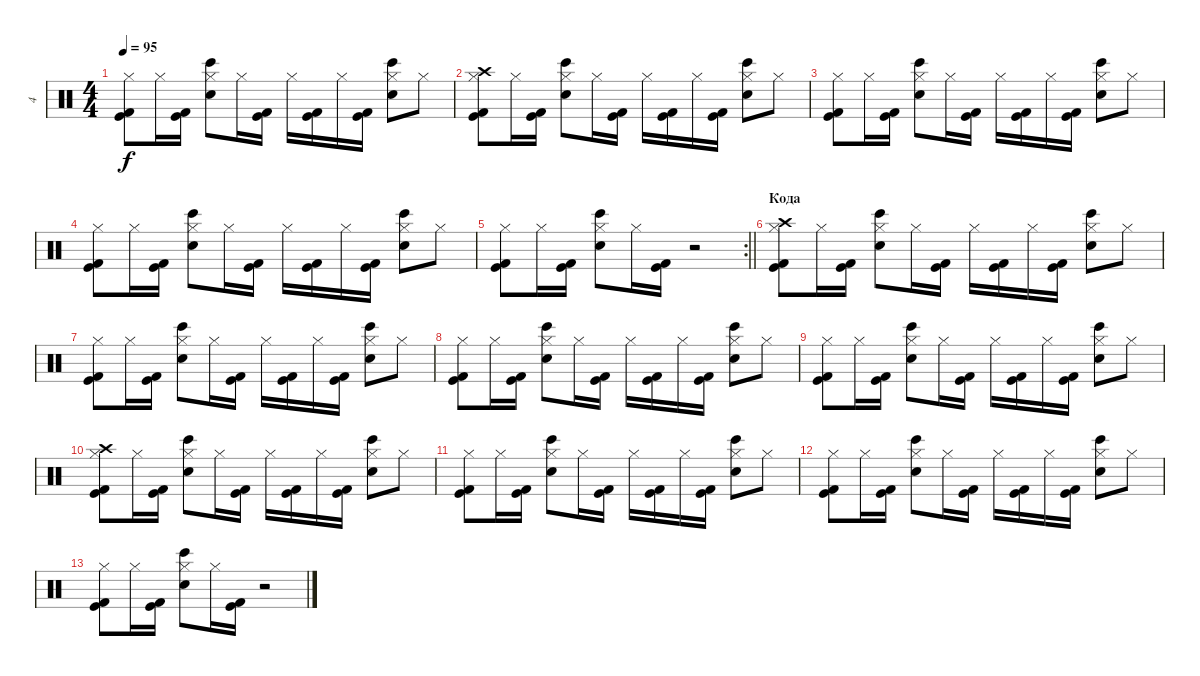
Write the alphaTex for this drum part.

\track ("4" "4") {instrument percussion}
\staff {score}
\articulation defaults
\ts (4 4)
\tempo 95
\clef neutral
\ks c
("Kick (hit) 2" "Kick (hit)" "Hi-Hat (closed)").8{dy f} "Hi-Hat (closed)".16 ("Kick (hit) 2" "Kick (hit)").16 ("Snare (hit) 2" "Hi-Hat (closed)" "Bongo High (hit)").8 "Hi-Hat (closed)".16 ("Kick (hit) 2" "Kick (hit)").16 "Hi-Hat (closed)".16 ("Kick (hit) 2" "Kick (hit)").16 "Hi-Hat (closed)".16 ("Kick (hit) 2" "Kick (hit)").16 ("Snare (hit) 2" "Hi-Hat (closed)" "Bongo High (hit)").8 "Hi-Hat (closed)".8 |
("Kick (hit) 2" "Kick (hit)" "Hi-Hat (closed)" "Crash high (hit)").8 "Hi-Hat (closed)".16 ("Kick (hit) 2" "Kick (hit)").16 ("Snare (hit) 2" "Hi-Hat (closed)" "Bongo High (hit)").8 "Hi-Hat (closed)".16 ("Kick (hit) 2" "Kick (hit)").16 "Hi-Hat (closed)".16 ("Kick (hit) 2" "Kick (hit)").16 "Hi-Hat (closed)".16 ("Kick (hit) 2" "Kick (hit)").16 ("Snare (hit) 2" "Hi-Hat (closed)" "Bongo High (hit)").8 "Hi-Hat (closed)".8 |
("Kick (hit) 2" "Kick (hit)" "Hi-Hat (closed)").8 "Hi-Hat (closed)".16 ("Kick (hit) 2" "Kick (hit)").16 ("Snare (hit) 2" "Hi-Hat (closed)" "Bongo High (hit)").8 "Hi-Hat (closed)".16 ("Kick (hit) 2" "Kick (hit)").16 "Hi-Hat (closed)".16 ("Kick (hit) 2" "Kick (hit)").16 "Hi-Hat (closed)".16 ("Kick (hit) 2" "Kick (hit)").16 ("Snare (hit) 2" "Hi-Hat (closed)" "Bongo High (hit)").8 "Hi-Hat (closed)".8 |
("Kick (hit) 2" "Kick (hit)" "Hi-Hat (closed)").8 "Hi-Hat (closed)".16 ("Kick (hit) 2" "Kick (hit)").16 ("Snare (hit) 2" "Hi-Hat (closed)" "Bongo High (hit)").8 "Hi-Hat (closed)".16 ("Kick (hit) 2" "Kick (hit)").16 "Hi-Hat (closed)".16 ("Kick (hit) 2" "Kick (hit)").16 "Hi-Hat (closed)".16 ("Kick (hit) 2" "Kick (hit)").16 ("Snare (hit) 2" "Hi-Hat (closed)" "Bongo High (hit)").8 "Hi-Hat (closed)".8 |
\rc 2
\barLineRight lightlight
("Kick (hit) 2" "Kick (hit)" "Hi-Hat (closed)").8 "Hi-Hat (closed)".16 ("Kick (hit) 2" "Kick (hit)").16 ("Snare (hit) 2" "Hi-Hat (closed)" "Bongo High (hit)").8 "Hi-Hat (closed)".16 ("Kick (hit) 2" "Kick (hit)").16 r.2 |
\section ("" "Кода")
("Kick (hit) 2" "Kick (hit)" "Hi-Hat (closed)" "Crash high (hit)").8 "Hi-Hat (closed)".16 ("Kick (hit) 2" "Kick (hit)").16 ("Snare (hit) 2" "Hi-Hat (closed)" "Bongo High (hit)").8 "Hi-Hat (closed)".16 ("Kick (hit) 2" "Kick (hit)").16 "Hi-Hat (closed)".16 ("Kick (hit) 2" "Kick (hit)").16 "Hi-Hat (closed)".16 ("Kick (hit) 2" "Kick (hit)").16 ("Snare (hit) 2" "Hi-Hat (closed)" "Bongo High (hit)").8 "Hi-Hat (closed)".8 |
("Kick (hit) 2" "Kick (hit)" "Hi-Hat (closed)").8 "Hi-Hat (closed)".16 ("Kick (hit) 2" "Kick (hit)").16 ("Snare (hit) 2" "Hi-Hat (closed)" "Bongo High (hit)").8 "Hi-Hat (closed)".16 ("Kick (hit) 2" "Kick (hit)").16 "Hi-Hat (closed)".16 ("Kick (hit) 2" "Kick (hit)").16 "Hi-Hat (closed)".16 ("Kick (hit) 2" "Kick (hit)").16 ("Snare (hit) 2" "Hi-Hat (closed)" "Bongo High (hit)").8 "Hi-Hat (closed)".8 |
("Kick (hit) 2" "Kick (hit)" "Hi-Hat (closed)").8 "Hi-Hat (closed)".16 ("Kick (hit) 2" "Kick (hit)").16 ("Snare (hit) 2" "Hi-Hat (closed)" "Bongo High (hit)").8 "Hi-Hat (closed)".16 ("Kick (hit) 2" "Kick (hit)").16 "Hi-Hat (closed)".16 ("Kick (hit) 2" "Kick (hit)").16 "Hi-Hat (closed)".16 ("Kick (hit) 2" "Kick (hit)").16 ("Snare (hit) 2" "Hi-Hat (closed)" "Bongo High (hit)").8 "Hi-Hat (closed)".8 |
("Kick (hit) 2" "Kick (hit)" "Hi-Hat (closed)").8 "Hi-Hat (closed)".16 ("Kick (hit) 2" "Kick (hit)").16 ("Snare (hit) 2" "Hi-Hat (closed)" "Bongo High (hit)").8 "Hi-Hat (closed)".16 ("Kick (hit) 2" "Kick (hit)").16 "Hi-Hat (closed)".16 ("Kick (hit) 2" "Kick (hit)").16 "Hi-Hat (closed)".16 ("Kick (hit) 2" "Kick (hit)").16 ("Snare (hit) 2" "Hi-Hat (closed)" "Bongo High (hit)").8 "Hi-Hat (closed)".8 |
("Kick (hit) 2" "Kick (hit)" "Hi-Hat (closed)" "Crash high (hit)").8 "Hi-Hat (closed)".16 ("Kick (hit) 2" "Kick (hit)").16 ("Snare (hit) 2" "Hi-Hat (closed)" "Bongo High (hit)").8 "Hi-Hat (closed)".16 ("Kick (hit) 2" "Kick (hit)").16 "Hi-Hat (closed)".16 ("Kick (hit) 2" "Kick (hit)").16 "Hi-Hat (closed)".16 ("Kick (hit) 2" "Kick (hit)").16 ("Snare (hit) 2" "Hi-Hat (closed)" "Bongo High (hit)").8 "Hi-Hat (closed)".8 |
("Kick (hit) 2" "Kick (hit)" "Hi-Hat (closed)").8 "Hi-Hat (closed)".16 ("Kick (hit) 2" "Kick (hit)").16 ("Snare (hit) 2" "Hi-Hat (closed)" "Bongo High (hit)").8 "Hi-Hat (closed)".16 ("Kick (hit) 2" "Kick (hit)").16 "Hi-Hat (closed)".16 ("Kick (hit) 2" "Kick (hit)").16 "Hi-Hat (closed)".16 ("Kick (hit) 2" "Kick (hit)").16 ("Snare (hit) 2" "Hi-Hat (closed)" "Bongo High (hit)").8 "Hi-Hat (closed)".8 |
("Kick (hit) 2" "Kick (hit)" "Hi-Hat (closed)").8 "Hi-Hat (closed)".16 ("Kick (hit) 2" "Kick (hit)").16 ("Snare (hit) 2" "Hi-Hat (closed)" "Bongo High (hit)").8 "Hi-Hat (closed)".16 ("Kick (hit) 2" "Kick (hit)").16 "Hi-Hat (closed)".16 ("Kick (hit) 2" "Kick (hit)").16 "Hi-Hat (closed)".16 ("Kick (hit) 2" "Kick (hit)").16 ("Snare (hit) 2" "Hi-Hat (closed)" "Bongo High (hit)").8 "Hi-Hat (closed)".8 |
("Kick (hit) 2" "Kick (hit)" "Hi-Hat (closed)").8 "Hi-Hat (closed)".16 ("Kick (hit) 2" "Kick (hit)").16 ("Snare (hit) 2" "Hi-Hat (closed)" "Bongo High (hit)").8 "Hi-Hat (closed)".16 ("Kick (hit) 2" "Kick (hit)").16 r.2
